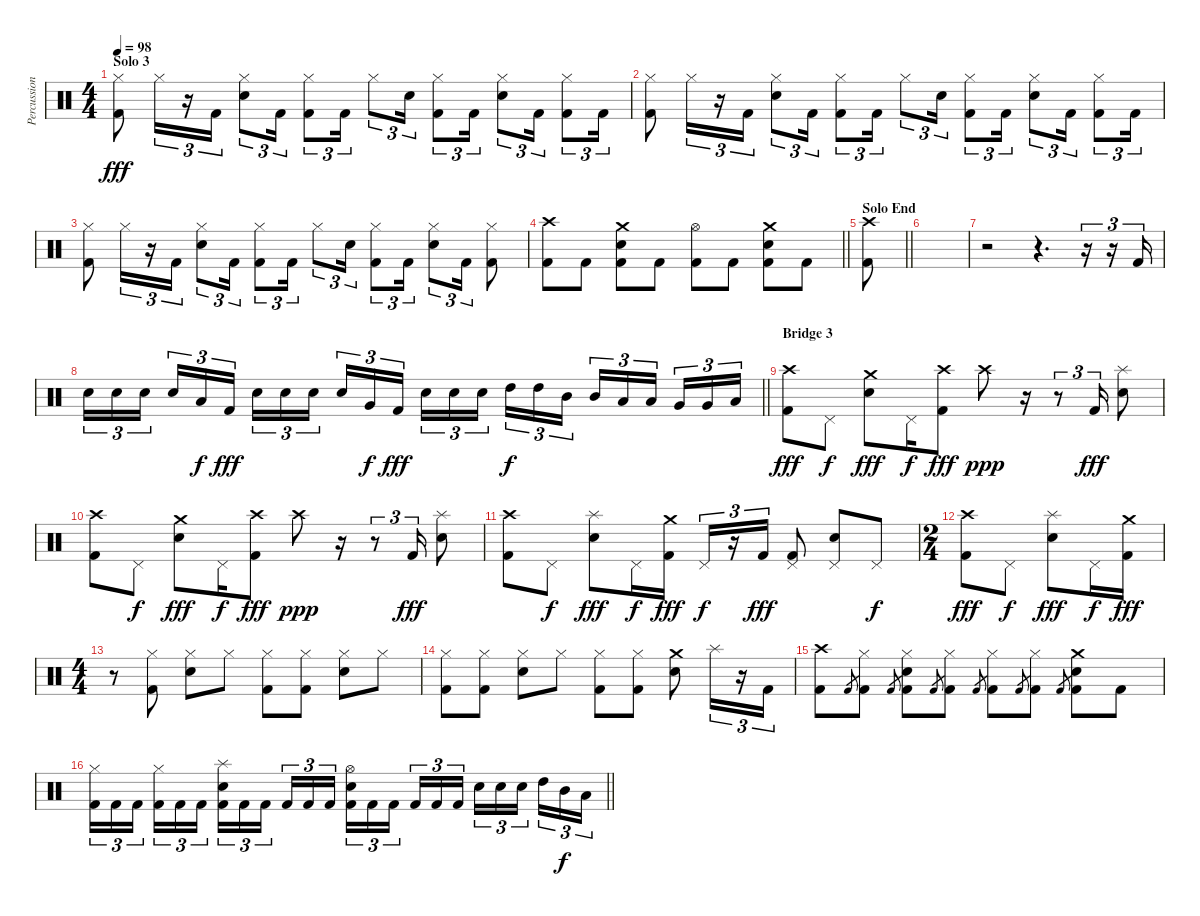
\track ("Percussion" "Percussion") {instrument percussion}
\staff {score}
\articulation defaults
\ts (4 4)
\section ("" "Solo 3")
\tempo 98
\clef neutral
\ks c
("Hi-Hat (closed)" "Kick (hit) 2").8{dy fff} "Hi-Hat (closed)".16{tu (3 2)} r.16{tu (3 2)} "Kick (hit) 2".16{tu (3 2)} ("Hi-Hat (closed)" "Snare (hit) 2").8{tu (3 2)} "Kick (hit) 2".16{tu (3 2)} ("Hi-Hat (closed)" "Kick (hit) 2").8{tu (3 2)} "Kick (hit) 2".16{tu (3 2)} "Hi-Hat (closed)".8{tu (3 2)} "Snare (hit) 2".16{tu (3 2)} ("Hi-Hat (closed)" "Kick (hit) 2").8{tu (3 2)} "Kick (hit) 2".16{tu (3 2)} ("Hi-Hat (closed)" "Snare (hit) 2").8{tu (3 2)} "Kick (hit) 2".16{tu (3 2)} ("Hi-Hat (closed)" "Kick (hit) 2").8{tu (3 2)} "Kick (hit) 2".16{tu (3 2)} |
("Hi-Hat (closed)" "Kick (hit) 2").8 "Hi-Hat (closed)".16{tu (3 2)} r.16{tu (3 2)} "Kick (hit) 2".16{tu (3 2)} ("Hi-Hat (closed)" "Snare (hit) 2").8{tu (3 2)} "Kick (hit) 2".16{tu (3 2)} ("Hi-Hat (closed)" "Kick (hit) 2").8{tu (3 2)} "Kick (hit) 2".16{tu (3 2)} "Hi-Hat (closed)".8{tu (3 2)} "Snare (hit) 2".16{tu (3 2)} ("Hi-Hat (closed)" "Kick (hit) 2").8{tu (3 2)} "Kick (hit) 2".16{tu (3 2)} ("Hi-Hat (closed)" "Snare (hit) 2").8{tu (3 2)} "Kick (hit) 2".16{tu (3 2)} ("Hi-Hat (closed)" "Kick (hit) 2").8{tu (3 2)} "Kick (hit) 2".16{tu (3 2)} |
("Hi-Hat (closed)" "Kick (hit) 2").8 "Hi-Hat (closed)".16{tu (3 2)} r.16{tu (3 2)} "Kick (hit) 2".16{tu (3 2)} ("Hi-Hat (closed)" "Snare (hit) 2").8{tu (3 2)} "Kick (hit) 2".16{tu (3 2)} ("Hi-Hat (closed)" "Kick (hit) 2").8{tu (3 2)} "Kick (hit) 2".16{tu (3 2)} "Hi-Hat (closed)".8{tu (3 2)} "Snare (hit) 2".16{tu (3 2)} ("Hi-Hat (closed)" "Kick (hit) 2").8{tu (3 2)} "Kick (hit) 2".16{tu (3 2)} ("Hi-Hat (closed)" "Snare (hit) 2").8{tu (3 2)} "Kick (hit) 2".16{tu (3 2)} ("Hi-Hat (closed)" "Kick (hit) 2").8 |
\barLineRight lightlight
("Crash high (hit)" "Kick (hit) 2").8 "Kick (hit) 2".8 ("Crash medium (hit)" "Snare (hit) 2" "Kick (hit) 2").8 "Kick (hit) 2".8 ("Hi-Hat (open)" "Kick (hit) 2").8 "Kick (hit) 2".8 ("Crash medium (hit)" "Snare (hit) 2" "Kick (hit) 2").8 "Kick (hit) 2".8 |
\section ("" "Solo End")
\barLineRight lightlight
("Crash high (hit)" "Kick (hit) 2").8 |
|
r.2 r.4{d} r.16{tu (3 2)} r.16{tu (3 2)} "Kick (hit) 2".16{tu (3 2)} |
\barLineRight lightlight "Snare (hit) 2".16{tu (3 2)} "Snare (hit) 2".16{tu (3 2)} "Snare (hit) 2".16{tu (3 2) beam splitsecondary} "Snare (hit) 2".16{tu (3 2)} "Low Tom (hit)".16{tu (3 2) dy f} "Kick (hit) 2".16{tu (3 2) dy fff} "Snare (hit) 2".16{tu (3 2)} "Snare (hit) 2".16{tu (3 2)} "Snare (hit) 2".16{tu (3 2) beam splitsecondary} "Snare (hit) 2".16{tu (3 2)} "Very Low Tom (hit)".16{tu (3 2) dy f} "Kick (hit) 2".16{tu (3 2) dy fff} "Snare (hit) 2".16{tu (3 2)} "Snare (hit) 2".16{tu (3 2)} "Snare (hit) 2".16{tu (3 2) beam splitsecondary} "High Tom (hit)".16{tu (3 2) dy f} "High Tom (hit)".16{tu (3 2)} "Mid Tom (hit)".16{tu (3 2)} "Mid Tom (hit)".16{tu (3 2)} "Low Tom (hit)".16{tu (3 2)} "Low Tom (hit)".16{tu (3 2) beam splitsecondary} "Very Low Tom (hit)".16{tu (3 2)} "Very Low Tom (hit)".16{tu (3 2)} "Low Floor Tom (hit)".16{tu (3 2)}
|
\section ("" "Bridge 3")
("Crash high (hit)" "Kick (hit) 2").8{dy fff} "Pedal Hi-Hat (hit)".8{dy f} ("Crash medium (hit)" "Snare (hit) 2").8{dy fff} "Pedal Hi-Hat (hit)".16{dy f} ("Crash high (hit)" "Kick (hit) 2").8{dy fff} "Crash high (hit)".8{dy ppp} r.16 r.8{tu (3 2)} "Kick (hit) 2".16{tu (3 2) dy fff} ("Splash (hit)" "Snare (hit) 2").8 |
("Crash high (hit)" "Kick (hit) 2").8 "Pedal Hi-Hat (hit)".8{dy f} ("Crash medium (hit)" "Snare (hit) 2").8{dy fff} "Pedal Hi-Hat (hit)".16{dy f} ("Crash high (hit)" "Kick (hit) 2").8{dy fff} "Crash high (hit)".8{dy ppp} r.16 r.8{tu (3 2)} "Kick (hit) 2".16{tu (3 2) dy fff} ("Splash (hit)" "Snare (hit) 2").8 |
("Crash high (hit)" "Kick (hit) 2").8 "Pedal Hi-Hat (hit)".8{dy f} ("Splash (hit)" "Snare (hit) 2").8{dy fff} "Pedal Hi-Hat (hit)".16{dy f} ("Crash medium (hit)" "Kick (hit) 2").16{dy fff} "Pedal Hi-Hat (hit)".16{tu (3 2) dy f} r.16{tu (3 2)} "Kick (hit) 2".16{tu (3 2) dy fff} ("Pedal Hi-Hat (hit)" "Kick (hit) 2").8 ("Pedal Hi-Hat (hit)" "Snare (hit) 2").8 "Pedal Hi-Hat (hit)".8{dy f} |
\ts (2 4)
("Crash high (hit)" "Kick (hit) 2").8{dy fff} "Pedal Hi-Hat (hit)".8{dy f} ("Splash (hit)" "Snare (hit) 2").8{dy fff} "Pedal Hi-Hat (hit)".16{dy f} ("Crash medium (hit)" "Kick (hit) 2").16{dy fff} |
\ts (4 4)
r.8 ("Hi-Hat (closed)" "Kick (hit) 2").8 ("Hi-Hat (closed)" "Snare (hit) 2").8 "Hi-Hat (closed)".8 ("Hi-Hat (closed)" "Kick (hit) 2").8 ("Hi-Hat (closed)" "Kick (hit) 2").8 ("Hi-Hat (closed)" "Snare (hit) 2").8 "Hi-Hat (closed)".8 |
("Hi-Hat (closed)" "Kick (hit) 2").8 ("Hi-Hat (closed)" "Kick (hit) 2").8 ("Hi-Hat (closed)" "Snare (hit) 2").8 "Hi-Hat (closed)".8 ("Hi-Hat (closed)" "Kick (hit) 2").8 ("Hi-Hat (closed)" "Kick (hit) 2").8 ("Crash medium (hit)" "Snare (hit) 2").8 "Splash (hit)".16{tu (3 2)} r.16{tu (3 2)} "Kick (hit) 2".16{tu (3 2)} |
("Crash high (hit)" "Kick (hit) 2").8 "Kick (hit) 2".8{gr} ("Hi-Hat (closed)" "Kick (hit) 2").8 "Kick (hit) 2".8{gr} ("Hi-Hat (closed)" "Snare (hit) 2" "Kick (hit) 2").8 "Kick (hit) 2".8{gr} ("Hi-Hat (closed)" "Kick (hit) 2").8 "Kick (hit) 2".8{gr} ("Hi-Hat (closed)" "Kick (hit) 2").8 "Kick (hit) 2".8{gr} ("Hi-Hat (closed)" "Kick (hit) 2").8 "Kick (hit) 2".8{gr} ("Crash medium (hit)" "Snare (hit) 2" "Kick (hit) 2").8 "Kick (hit) 2".8 |
\barLineRight lightlight
("Hi-Hat (closed)" "Kick (hit) 2").16{tu (3 2)} "Kick (hit) 2".16{tu (3 2)} "Kick (hit) 2".16{tu (3 2) beam splitsecondary} ("Hi-Hat (closed)" "Kick (hit) 2").16{tu (3 2)} "Kick (hit) 2".16{tu (3 2)} "Kick (hit) 2".16{tu (3 2)} ("Splash (hit)" "Snare (hit) 2" "Kick (hit) 2").16{tu (3 2)} "Kick (hit) 2".16{tu (3 2)} "Kick (hit) 2".16{tu (3 2) beam splitsecondary} "Kick (hit) 2".16{tu (3 2)} "Kick (hit) 2".16{tu (3 2)} "Kick (hit) 2".16{tu (3 2)} ("Hi-Hat (open)" "Snare (hit) 2" "Kick (hit) 2").16{tu (3 2)} "Kick (hit) 2".16{tu (3 2)} "Kick (hit) 2".16{tu (3 2) beam splitsecondary} "Kick (hit) 2".16{tu (3 2)} "Kick (hit) 2".16{tu (3 2)} "Kick (hit) 2".16{tu (3 2)} "Snare (hit) 2".16{tu (3 2)} "Snare (hit) 2".16{tu (3 2)} "Snare (hit) 2".16{tu (3 2) beam splitsecondary} "High Tom (hit)".16{tu (3 2)} "Mid Tom (hit)".16{tu (3 2) dy f} "Low Tom (hit)".16{tu (3 2)}
